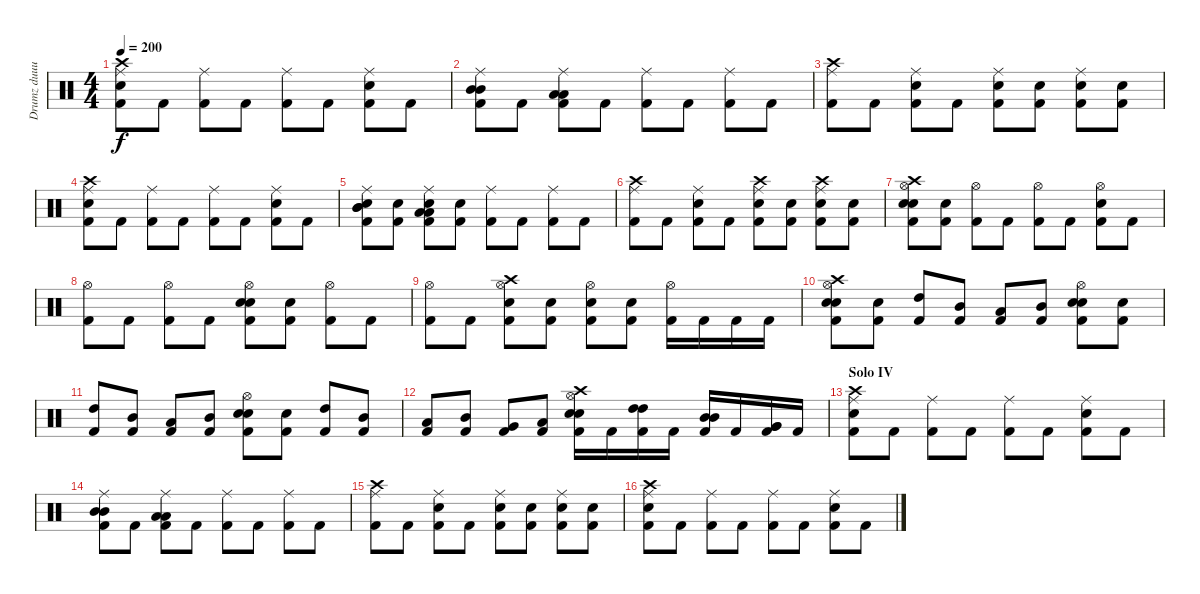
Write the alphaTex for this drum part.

\track ("Drumz duuuuude" "Drumz duuu") {instrument percussion}
\staff {score}
\articulation defaults
\ts (4 4)
\tempo 200
\clef neutral
\ks c
("Crash high (hit)" "Ride (middle)" "Kick (hit) 2" "Snare (hit) 2").8{dy f} "Kick (hit) 2".8 ("Ride (middle)" "Kick (hit) 2").8 "Kick (hit) 2".8 ("Ride (middle)" "Kick (hit) 2").8 "Kick (hit) 2".8 ("Ride (middle)" "Kick (hit) 2" "Snare (hit) 2").8 "Kick (hit) 2".8 |
("Ride (middle)" "Kick (hit) 2" "Mid Tom (hit)" "Mid Tom (hit)").8 "Kick (hit) 2".8 ("Ride (middle)" "Kick (hit) 2" "Low Tom (hit)" "Low Tom (hit)").8 "Kick (hit) 2".8 ("Ride (middle)" "Kick (hit) 2").8 "Kick (hit) 2".8 ("Ride (middle)" "Kick (hit) 2").8 "Kick (hit) 2".8 |
("Crash high (hit)" "Ride (middle)" "Kick (hit) 2").8 "Kick (hit) 2".8 ("Ride (middle)" "Kick (hit) 2" "Snare (hit) 2").8 "Kick (hit) 2".8 ("Ride (middle)" "Kick (hit) 2" "Electric Snare (hit)").8 ("Kick (hit) 2" "Electric Snare (hit)").8 ("Ride (middle)" "Kick (hit) 2" "Electric Snare (hit)").8 ("Kick (hit) 2" "Electric Snare (hit)").8 |
("Crash high (hit)" "Ride (middle)" "Kick (hit) 2" "Snare (hit) 2").8 "Kick (hit) 2".8 ("Ride (middle)" "Kick (hit) 2").8 "Kick (hit) 2".8 ("Ride (middle)" "Kick (hit) 2").8 "Kick (hit) 2".8 ("Ride (middle)" "Kick (hit) 2" "Snare (hit) 2").8 "Kick (hit) 2".8 |
("Ride (middle)" "Kick (hit) 2" "Electric Snare (hit)" "Mid Tom (hit)" "Mid Tom (hit)").8 ("Kick (hit) 2" "Electric Snare (hit)").8 ("Ride (middle)" "Kick (hit) 2" "Electric Snare (hit)" "Low Tom (hit)" "Low Tom (hit)").8 ("Kick (hit) 2" "Electric Snare (hit)").8 ("Ride (middle)" "Kick (hit) 2").8 "Kick (hit) 2".8 ("Ride (middle)" "Kick (hit) 2").8 "Kick (hit) 2".8 |
("Crash high (hit)" "Ride (middle)" "Kick (hit) 2").8 "Kick (hit) 2".8 ("Ride (middle)" "Kick (hit) 2" "Snare (hit) 2").8 "Kick (hit) 2".8 ("Crash high (hit)" "Ride (middle)" "Kick (hit) 2" "Snare (hit) 2").8 ("Kick (hit) 2" "Snare (hit) 2").8 ("Crash high (hit)" "Ride (middle)" "Kick (hit) 2" "Snare (hit) 2").8 ("Kick (hit) 2" "Snare (hit) 2").8 |
("Crash high (hit)" "Hi-Hat (open)" "Kick (hit) 2" "Snare (hit) 2" "Electric Snare (hit)").8 ("Kick (hit) 2" "Electric Snare (hit)").8 ("Hi-Hat (open)" "Kick (hit) 2").8 "Kick (hit) 2".8 ("Hi-Hat (open)" "Kick (hit) 2").8 "Kick (hit) 2".8 ("Hi-Hat (open)" "Kick (hit) 2" "Snare (hit) 2").8 "Kick (hit) 2".8 |
("Hi-Hat (open)" "Kick (hit) 2").8 "Kick (hit) 2".8 ("Hi-Hat (open)" "Kick (hit) 2").8 "Kick (hit) 2".8 ("Hi-Hat (open)" "Kick (hit) 2" "Snare (hit) 2" "Electric Snare (hit)").8 ("Kick (hit) 2" "Electric Snare (hit)").8 ("Hi-Hat (open)" "Kick (hit) 2").8 "Kick (hit) 2".8 |
("Hi-Hat (open)" "Kick (hit) 2").8 "Kick (hit) 2".8 ("Crash high (hit)" "Hi-Hat (open)" "Kick (hit) 2" "Electric Snare (hit)").8 ("Kick (hit) 2" "Electric Snare (hit)").8 ("Hi-Hat (open)" "Kick (hit) 2" "Electric Snare (hit)").8 ("Kick (hit) 2" "Electric Snare (hit)").8 ("Hi-Hat (open)" "Kick (hit) 2").16 "Kick (hit) 2".16 "Kick (hit) 2".16 "Kick (hit) 2".16 |
("Crash high (hit)" "Hi-Hat (open)" "Kick (hit) 2" "Snare (hit) 2" "Electric Snare (hit)").8 ("Kick (hit) 2" "Electric Snare (hit)").8 ("Kick (hit) 2" "High Tom (hit)").8 ("Kick (hit) 2" "Mid Tom (hit)").8 ("Kick (hit) 2" "Low Tom (hit)").8 ("Kick (hit) 2" "Mid Tom (hit)").8 ("Hi-Hat (open)" "Kick (hit) 2" "Snare (hit) 2" "Electric Snare (hit)").8 ("Kick (hit) 2" "Electric Snare (hit)").8 |
("Kick (hit) 2" "High Tom (hit)").8 ("Kick (hit) 2" "Mid Tom (hit)").8 ("Kick (hit) 2" "Low Tom (hit)").8 ("Kick (hit) 2" "Mid Tom (hit)").8 ("Hi-Hat (open)" "Kick (hit) 2" "Snare (hit) 2" "Electric Snare (hit)").8 ("Kick (hit) 2" "Electric Snare (hit)").8 ("Kick (hit) 2" "High Tom (hit)").8 ("Kick (hit) 2" "Mid Tom (hit)").8 |
("Kick (hit) 2" "Low Tom (hit)").8 ("Kick (hit) 2" "Mid Tom (hit)").8 ("Kick (hit) 2" "Very Low Tom (hit)").8 ("Kick (hit) 2" "Low Floor Tom (hit)").8 ("Crash high (hit)" "Hi-Hat (open)" "Kick (hit) 2" "Snare (hit) 2" "Electric Snare (hit)").16 "Kick (hit) 2".16 ("Kick (hit) 2" "High Tom (hit)" "High Tom (hit)").16 "Kick (hit) 2".16 ("Kick (hit) 2" "Mid Tom (hit)" "Mid Tom (hit)").16 "Kick (hit) 2".16 ("Kick (hit) 2" "Very Low Tom (hit)" "Very Low Tom (hit)").16 "Kick (hit) 2".16 |
\section ("" "Solo IV")
("Crash high (hit)" "Ride (middle)" "Kick (hit) 2" "Snare (hit) 2").8 "Kick (hit) 2".8 ("Ride (middle)" "Kick (hit) 2").8 "Kick (hit) 2".8 ("Ride (middle)" "Kick (hit) 2").8 "Kick (hit) 2".8 ("Ride (middle)" "Kick (hit) 2" "Snare (hit) 2").8 "Kick (hit) 2".8 |
("Ride (middle)" "Kick (hit) 2" "Mid Tom (hit)" "Mid Tom (hit)").8 "Kick (hit) 2".8 ("Ride (middle)" "Kick (hit) 2" "Low Tom (hit)" "Low Tom (hit)").8 "Kick (hit) 2".8 ("Ride (middle)" "Kick (hit) 2").8 "Kick (hit) 2".8 ("Ride (middle)" "Kick (hit) 2").8 "Kick (hit) 2".8 |
("Crash high (hit)" "Ride (middle)" "Kick (hit) 2").8 "Kick (hit) 2".8 ("Ride (middle)" "Kick (hit) 2" "Snare (hit) 2").8 "Kick (hit) 2".8 ("Ride (middle)" "Kick (hit) 2" "Electric Snare (hit)").8 ("Kick (hit) 2" "Electric Snare (hit)").8 ("Ride (middle)" "Kick (hit) 2" "Electric Snare (hit)").8 ("Kick (hit) 2" "Electric Snare (hit)").8 |
("Crash high (hit)" "Ride (middle)" "Kick (hit) 2" "Snare (hit) 2").8 "Kick (hit) 2".8 ("Ride (middle)" "Kick (hit) 2").8 "Kick (hit) 2".8 ("Ride (middle)" "Kick (hit) 2").8 "Kick (hit) 2".8 ("Ride (middle)" "Kick (hit) 2" "Snare (hit) 2").8 "Kick (hit) 2".8
